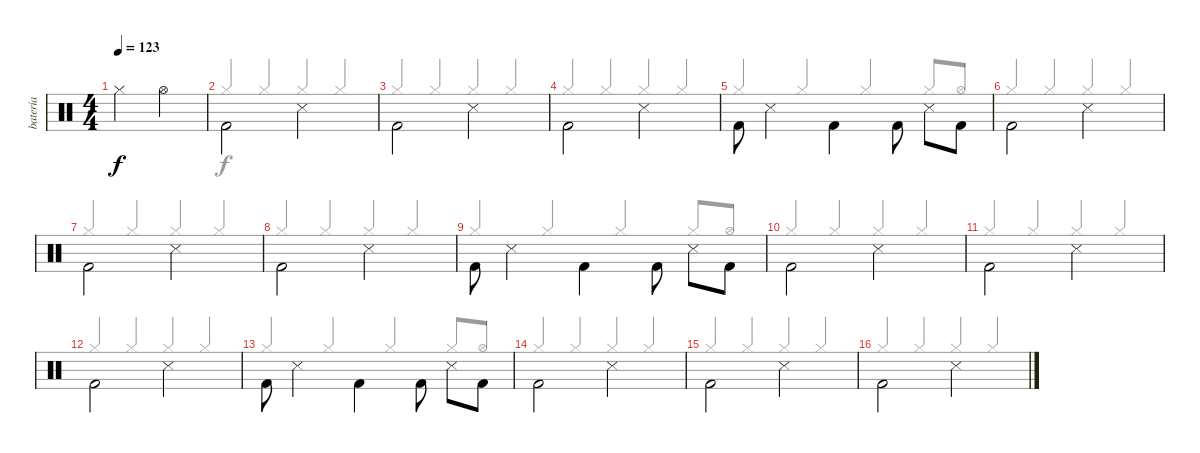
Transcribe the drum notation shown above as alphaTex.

\track ("batería" "batería") {instrument percussion}
\staff {score}
\articulation defaults
\voice
\ts (4 4)
\tempo 123
\clef neutral
\ks c "Hi-Hat (closed)".2{dy f} "Hi-Hat (open)".2
|
"Kick (hit) 2".2{beam Down} "Snare (side stick) 3".2{beam Down} |
"Kick (hit) 2".2{beam Down} "Snare (side stick) 3".2{beam Down} |
"Kick (hit) 2".2{beam Down} "Snare (side stick) 3".2{beam Down} |
"Kick (hit) 2".8{beam Down} "Snare (side stick) 3".4{beam Down} "Kick (hit) 2".4{beam Down} "Kick (hit) 2".8{beam Down} "Snare (side stick) 3".8{beam Down} "Kick (hit) 2".8{beam Down} |
"Kick (hit) 2".2{beam Down} "Snare (side stick) 3".2{beam Down} |
"Kick (hit) 2".2{beam Down} "Snare (side stick) 3".2{beam Down} |
"Kick (hit) 2".2{beam Down} "Snare (side stick) 3".2{beam Down} |
"Kick (hit) 2".8{beam Down} "Snare (side stick) 3".4{beam Down} "Kick (hit) 2".4{beam Down} "Kick (hit) 2".8{beam Down} "Snare (side stick) 3".8{beam Down} "Kick (hit) 2".8{beam Down} |
"Kick (hit) 2".2{beam Down} "Snare (side stick) 3".2{beam Down} |
"Kick (hit) 2".2{beam Down} "Snare (side stick) 3".2{beam Down} |
"Kick (hit) 2".2{beam Down} "Snare (side stick) 3".2{beam Down} |
"Kick (hit) 2".8{beam Down} "Snare (side stick) 3".4{beam Down} "Kick (hit) 2".4{beam Down} "Kick (hit) 2".8{beam Down} "Snare (side stick) 3".8{beam Down} "Kick (hit) 2".8{beam Down} |
"Kick (hit) 2".2{beam Down} "Snare (side stick) 3".2{beam Down} |
"Kick (hit) 2".2{beam Down} "Snare (side stick) 3".2{beam Down} |
"Kick (hit) 2".2{beam Down} "Snare (side stick) 3".2{beam Down}
\voice
\clef neutral
\ottava regular
\simile none
\ks c
|
"Hi-Hat (closed)".4{beam Up} "Hi-Hat (closed)".4{beam Up} "Hi-Hat (closed)".4{beam Up} "Hi-Hat (closed)".4{beam Up} |
"Hi-Hat (closed)".4{beam Up} "Hi-Hat (closed)".4{beam Up} "Hi-Hat (closed)".4{beam Up} "Hi-Hat (closed)".4{beam Up} |
"Hi-Hat (closed)".4{beam Up} "Hi-Hat (closed)".4{beam Up} "Hi-Hat (closed)".4{beam Up} "Hi-Hat (closed)".4{beam Up} |
"Hi-Hat (closed)".4{beam Up} "Hi-Hat (closed)".4{beam Up} "Hi-Hat (closed)".4{beam Up} "Hi-Hat (closed)".8{beam Up} "Hi-Hat (open)".8{beam Up} |
"Hi-Hat (closed)".4{beam Up} "Hi-Hat (closed)".4{beam Up} "Hi-Hat (closed)".4{beam Up} "Hi-Hat (closed)".4{beam Up} |
"Hi-Hat (closed)".4{beam Up} "Hi-Hat (closed)".4{beam Up} "Hi-Hat (closed)".4{beam Up} "Hi-Hat (closed)".4{beam Up} |
"Hi-Hat (closed)".4{beam Up} "Hi-Hat (closed)".4{beam Up} "Hi-Hat (closed)".4{beam Up} "Hi-Hat (closed)".4{beam Up} |
"Hi-Hat (closed)".4{beam Up} "Hi-Hat (closed)".4{beam Up} "Hi-Hat (closed)".4{beam Up} "Hi-Hat (closed)".8{beam Up} "Hi-Hat (open)".8{beam Up} |
"Hi-Hat (closed)".4{beam Up} "Hi-Hat (closed)".4{beam Up} "Hi-Hat (closed)".4{beam Up} "Hi-Hat (closed)".4{beam Up} |
"Hi-Hat (closed)".4{beam Up} "Hi-Hat (closed)".4{beam Up} "Hi-Hat (closed)".4{beam Up} "Hi-Hat (closed)".4{beam Up} |
"Hi-Hat (closed)".4{beam Up} "Hi-Hat (closed)".4{beam Up} "Hi-Hat (closed)".4{beam Up} "Hi-Hat (closed)".4{beam Up} |
"Hi-Hat (closed)".4{beam Up} "Hi-Hat (closed)".4{beam Up} "Hi-Hat (closed)".4{beam Up} "Hi-Hat (closed)".8{beam Up} "Hi-Hat (open)".8{beam Up} |
"Hi-Hat (closed)".4{beam Up} "Hi-Hat (closed)".4{beam Up} "Hi-Hat (closed)".4{beam Up} "Hi-Hat (closed)".4{beam Up} |
"Hi-Hat (closed)".4{beam Up} "Hi-Hat (closed)".4{beam Up} "Hi-Hat (closed)".4{beam Up} "Hi-Hat (closed)".4{beam Up} |
"Hi-Hat (closed)".4{beam Up} "Hi-Hat (closed)".4{beam Up} "Hi-Hat (closed)".4{beam Up} "Hi-Hat (closed)".4{beam Up}
